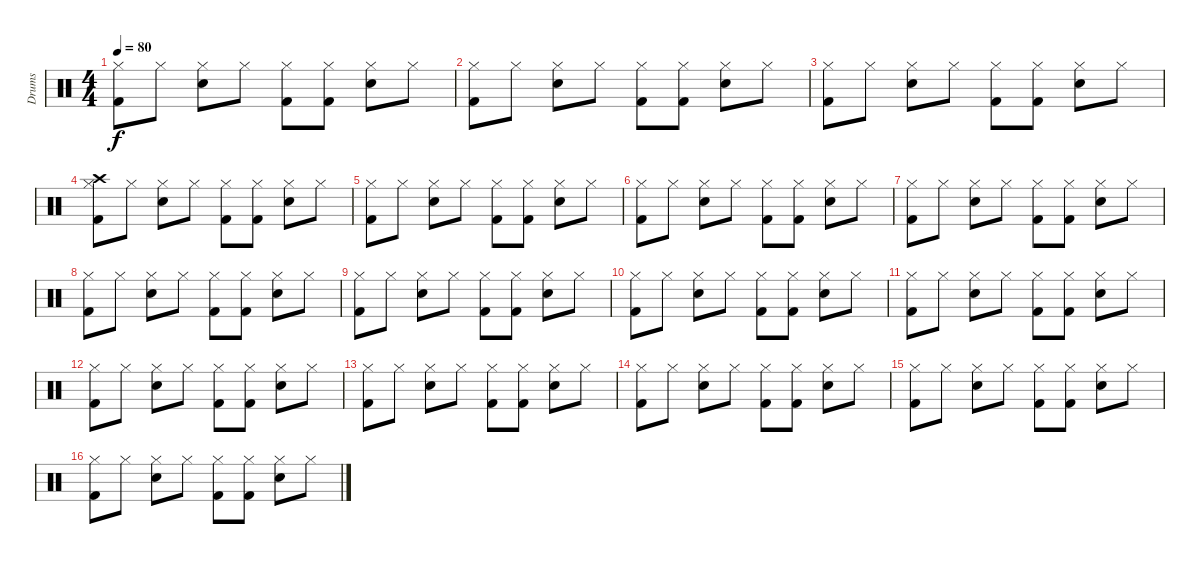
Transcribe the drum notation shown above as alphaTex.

\track ("Drums" "Drums") {instrument percussion}
\staff {score}
\articulation defaults
\ts (4 4)
\tempo 80
\clef neutral
\ks c
("Hi-Hat (closed)" "Kick (hit) 2").8{dy f} "Hi-Hat (closed)".8 ("Hi-Hat (closed)" "Electric Snare (hit)").8 "Hi-Hat (closed)".8 ("Hi-Hat (closed)" "Kick (hit) 2").8 ("Hi-Hat (closed)" "Kick (hit) 2").8 ("Hi-Hat (closed)" "Electric Snare (hit)").8 "Hi-Hat (closed)".8 |
("Hi-Hat (closed)" "Kick (hit) 2").8 "Hi-Hat (closed)".8 ("Hi-Hat (closed)" "Electric Snare (hit)").8 "Hi-Hat (closed)".8 ("Hi-Hat (closed)" "Kick (hit) 2").8 ("Hi-Hat (closed)" "Kick (hit) 2").8 ("Hi-Hat (closed)" "Electric Snare (hit)").8 "Hi-Hat (closed)".8 |
("Hi-Hat (closed)" "Kick (hit) 2").8 "Hi-Hat (closed)".8 ("Hi-Hat (closed)" "Electric Snare (hit)").8 "Hi-Hat (closed)".8 ("Hi-Hat (closed)" "Kick (hit) 2").8 ("Hi-Hat (closed)" "Kick (hit) 2").8 ("Hi-Hat (closed)" "Electric Snare (hit)").8 "Hi-Hat (closed)".8 |
("Crash high (hit)" "Hi-Hat (closed)" "Kick (hit) 2").8 "Hi-Hat (closed)".8 ("Hi-Hat (closed)" "Electric Snare (hit)").8 "Hi-Hat (closed)".8 ("Hi-Hat (closed)" "Kick (hit) 2").8 ("Hi-Hat (closed)" "Kick (hit) 2").8 ("Hi-Hat (closed)" "Electric Snare (hit)").8 "Hi-Hat (closed)".8 |
("Hi-Hat (closed)" "Kick (hit) 2").8 "Hi-Hat (closed)".8 ("Hi-Hat (closed)" "Electric Snare (hit)").8 "Hi-Hat (closed)".8 ("Hi-Hat (closed)" "Kick (hit) 2").8 ("Hi-Hat (closed)" "Kick (hit) 2").8 ("Hi-Hat (closed)" "Electric Snare (hit)").8 "Hi-Hat (closed)".8 |
("Hi-Hat (closed)" "Kick (hit) 2").8 "Hi-Hat (closed)".8 ("Hi-Hat (closed)" "Electric Snare (hit)").8 "Hi-Hat (closed)".8 ("Hi-Hat (closed)" "Kick (hit) 2").8 ("Hi-Hat (closed)" "Kick (hit) 2").8 ("Hi-Hat (closed)" "Electric Snare (hit)").8 "Hi-Hat (closed)".8 |
("Hi-Hat (closed)" "Kick (hit) 2").8 "Hi-Hat (closed)".8 ("Hi-Hat (closed)" "Electric Snare (hit)").8 "Hi-Hat (closed)".8 ("Hi-Hat (closed)" "Kick (hit) 2").8 ("Hi-Hat (closed)" "Kick (hit) 2").8 ("Hi-Hat (closed)" "Electric Snare (hit)").8 "Hi-Hat (closed)".8 |
("Hi-Hat (closed)" "Kick (hit) 2").8 "Hi-Hat (closed)".8 ("Hi-Hat (closed)" "Electric Snare (hit)").8 "Hi-Hat (closed)".8 ("Hi-Hat (closed)" "Kick (hit) 2").8 ("Hi-Hat (closed)" "Kick (hit) 2").8 ("Hi-Hat (closed)" "Electric Snare (hit)").8 "Hi-Hat (closed)".8 |
("Hi-Hat (closed)" "Kick (hit) 2").8 "Hi-Hat (closed)".8 ("Hi-Hat (closed)" "Electric Snare (hit)").8 "Hi-Hat (closed)".8 ("Hi-Hat (closed)" "Kick (hit) 2").8 ("Hi-Hat (closed)" "Kick (hit) 2").8 ("Hi-Hat (closed)" "Electric Snare (hit)").8 "Hi-Hat (closed)".8 |
("Hi-Hat (closed)" "Kick (hit) 2").8 "Hi-Hat (closed)".8 ("Hi-Hat (closed)" "Electric Snare (hit)").8 "Hi-Hat (closed)".8 ("Hi-Hat (closed)" "Kick (hit) 2").8 ("Hi-Hat (closed)" "Kick (hit) 2").8 ("Hi-Hat (closed)" "Electric Snare (hit)").8 "Hi-Hat (closed)".8 |
("Hi-Hat (closed)" "Kick (hit) 2").8 "Hi-Hat (closed)".8 ("Hi-Hat (closed)" "Electric Snare (hit)").8 "Hi-Hat (closed)".8 ("Hi-Hat (closed)" "Kick (hit) 2").8 ("Hi-Hat (closed)" "Kick (hit) 2").8 ("Hi-Hat (closed)" "Electric Snare (hit)").8 "Hi-Hat (closed)".8 |
("Hi-Hat (closed)" "Kick (hit) 2").8 "Hi-Hat (closed)".8 ("Hi-Hat (closed)" "Electric Snare (hit)").8 "Hi-Hat (closed)".8 ("Hi-Hat (closed)" "Kick (hit) 2").8 ("Hi-Hat (closed)" "Kick (hit) 2").8 ("Hi-Hat (closed)" "Electric Snare (hit)").8 "Hi-Hat (closed)".8 |
("Hi-Hat (closed)" "Kick (hit) 2").8 "Hi-Hat (closed)".8 ("Hi-Hat (closed)" "Electric Snare (hit)").8 "Hi-Hat (closed)".8 ("Hi-Hat (closed)" "Kick (hit) 2").8 ("Hi-Hat (closed)" "Kick (hit) 2").8 ("Hi-Hat (closed)" "Electric Snare (hit)").8 "Hi-Hat (closed)".8 |
("Hi-Hat (closed)" "Kick (hit) 2").8 "Hi-Hat (closed)".8 ("Hi-Hat (closed)" "Electric Snare (hit)").8 "Hi-Hat (closed)".8 ("Hi-Hat (closed)" "Kick (hit) 2").8 ("Hi-Hat (closed)" "Kick (hit) 2").8 ("Hi-Hat (closed)" "Electric Snare (hit)").8 "Hi-Hat (closed)".8 |
("Hi-Hat (closed)" "Kick (hit) 2").8 "Hi-Hat (closed)".8 ("Hi-Hat (closed)" "Electric Snare (hit)").8 "Hi-Hat (closed)".8 ("Hi-Hat (closed)" "Kick (hit) 2").8 ("Hi-Hat (closed)" "Kick (hit) 2").8 ("Hi-Hat (closed)" "Electric Snare (hit)").8 "Hi-Hat (closed)".8 |
("Hi-Hat (closed)" "Kick (hit) 2").8 "Hi-Hat (closed)".8 ("Hi-Hat (closed)" "Electric Snare (hit)").8 "Hi-Hat (closed)".8 ("Hi-Hat (closed)" "Kick (hit) 2").8 ("Hi-Hat (closed)" "Kick (hit) 2").8 ("Hi-Hat (closed)" "Electric Snare (hit)").8 "Hi-Hat (closed)".8
